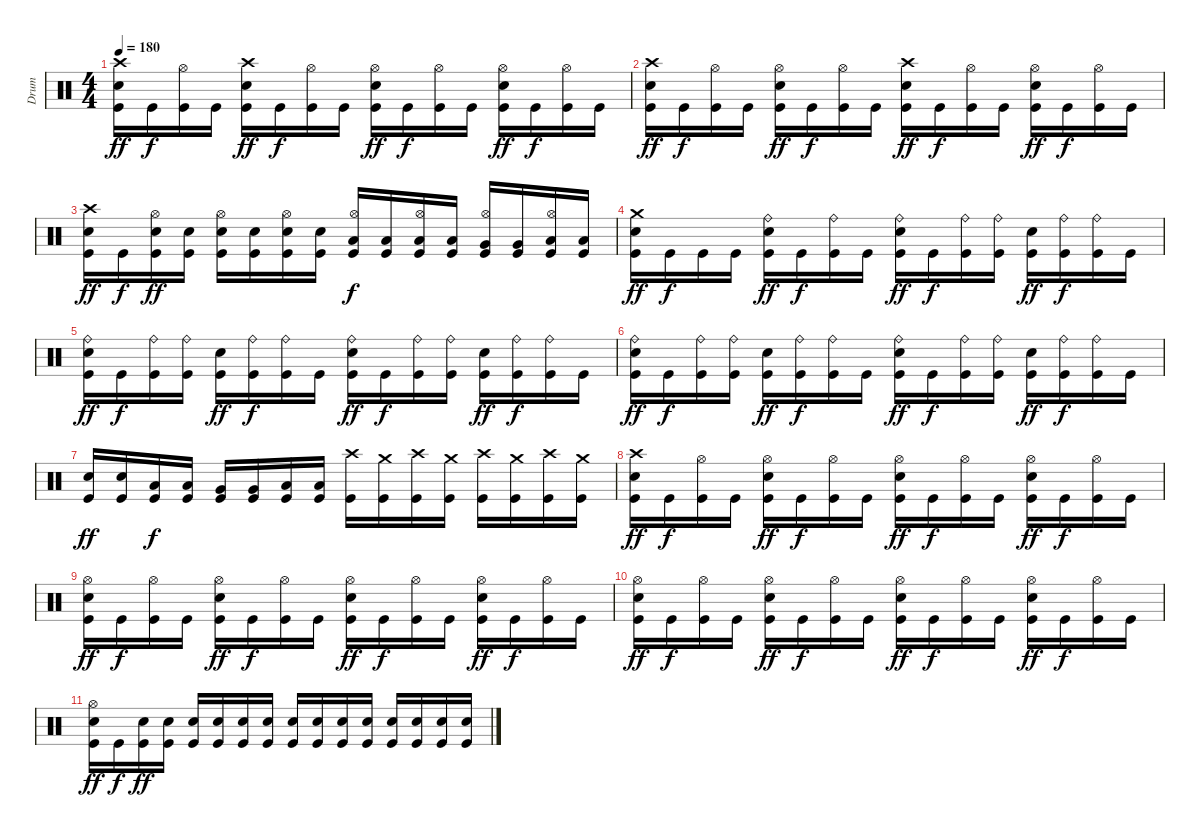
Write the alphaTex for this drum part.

\track ("Drum" "Drum") {instrument percussion}
\staff {score}
\articulation defaults
\ts (4 4)
\tempo 180
\clef neutral
\ks c
("Kick (hit)" "Electric Snare (hit)" "Crash high (hit)").16{dy ff} "Kick (hit)".16{dy f} ("Kick (hit)" "Hi-Hat (open)").16 "Kick (hit)".16 ("Kick (hit)" "Electric Snare (hit)" "Crash high (hit)").16{dy ff} "Kick (hit)".16{dy f} ("Kick (hit)" "Hi-Hat (open)").16 "Kick (hit)".16 ("Kick (hit)" "Electric Snare (hit)" "Hi-Hat (open)").16{dy ff} "Kick (hit)".16{dy f} ("Kick (hit)" "Hi-Hat (open)").16 "Kick (hit)".16 ("Kick (hit)" "Electric Snare (hit)" "Hi-Hat (open)").16{dy ff} "Kick (hit)".16{dy f} ("Kick (hit)" "Hi-Hat (open)").16 "Kick (hit)".16 |
("Kick (hit)" "Electric Snare (hit)" "Crash high (hit)").16{dy ff} "Kick (hit)".16{dy f} ("Kick (hit)" "Hi-Hat (open)").16 "Kick (hit)".16 ("Kick (hit)" "Electric Snare (hit)" "Hi-Hat (open)").16{dy ff} "Kick (hit)".16{dy f} ("Kick (hit)" "Hi-Hat (open)").16 "Kick (hit)".16 ("Kick (hit)" "Electric Snare (hit)" "Crash high (hit)").16{dy ff} "Kick (hit)".16{dy f} ("Kick (hit)" "Hi-Hat (open)").16 "Kick (hit)".16 ("Kick (hit)" "Electric Snare (hit)" "Hi-Hat (open)").16{dy ff} "Kick (hit)".16{dy f} ("Kick (hit)" "Hi-Hat (open)").16 "Kick (hit)".16 |
("Kick (hit)" "Electric Snare (hit)" "Crash high (hit)").16{dy ff} "Kick (hit)".16{dy f} ("Kick (hit)" "Electric Snare (hit)" "Hi-Hat (open)").16{dy ff} ("Kick (hit)" "Electric Snare (hit)").16 ("Kick (hit)" "Electric Snare (hit)" "Hi-Hat (open)").16 ("Kick (hit)" "Electric Snare (hit)").16 ("Kick (hit)" "Electric Snare (hit)" "Hi-Hat (open)").16 ("Kick (hit)" "Electric Snare (hit)").16 ("Kick (hit)" "Low Tom (hit)" "Hi-Hat (open)").16{dy f} ("Kick (hit)" "Low Tom (hit)").16 ("Kick (hit)" "Low Tom (hit)" "Hi-Hat (open)").16 ("Kick (hit)" "Low Tom (hit)").16 ("Kick (hit)" "Very Low Tom (hit)" "Hi-Hat (open)").16 ("Kick (hit)" "Very Low Tom (hit)").16 ("Kick (hit)" "Low Floor Tom (hit)" "Hi-Hat (open)").16 ("Kick (hit)" "Low Floor Tom (hit)").16 |
("Kick (hit)" "Electric Snare (hit)" "Crash medium (hit)").16{dy ff} "Kick (hit)".16{dy f} "Kick (hit)".16 "Kick (hit)".16 ("Kick (hit)" "Electric Snare (hit)" "Ride (bell)").16{dy ff} "Kick (hit)".16{dy f} ("Kick (hit)" "Ride (bell)").16 "Kick (hit)".16 ("Kick (hit)" "Electric Snare (hit)" "Ride (bell)").16{dy ff} "Kick (hit)".16{dy f} ("Kick (hit)" "Ride (bell)").16 ("Kick (hit)" "Ride (bell)").16 ("Kick (hit)" "Electric Snare (hit)").16{dy ff} ("Kick (hit)" "Ride (bell)").16{dy f} ("Kick (hit)" "Ride (bell)").16 "Kick (hit)".16 |
("Kick (hit)" "Electric Snare (hit)" "Ride (bell)").16{dy ff} "Kick (hit)".16{dy f} ("Kick (hit)" "Ride (bell)").16 ("Kick (hit)" "Ride (bell)").16 ("Kick (hit)" "Electric Snare (hit)").16{dy ff} ("Kick (hit)" "Ride (bell)").16{dy f} ("Kick (hit)" "Ride (bell)").16 "Kick (hit)".16 ("Kick (hit)" "Electric Snare (hit)" "Ride (bell)").16{dy ff} "Kick (hit)".16{dy f} ("Kick (hit)" "Ride (bell)").16 ("Kick (hit)" "Ride (bell)").16 ("Kick (hit)" "Electric Snare (hit)").16{dy ff} ("Kick (hit)" "Ride (bell)").16{dy f} ("Kick (hit)" "Ride (bell)").16 "Kick (hit)".16 |
("Kick (hit)" "Electric Snare (hit)" "Ride (bell)").16{dy ff} "Kick (hit)".16{dy f} ("Kick (hit)" "Ride (bell)").16 ("Kick (hit)" "Ride (bell)").16 ("Kick (hit)" "Electric Snare (hit)").16{dy ff} ("Kick (hit)" "Ride (bell)").16{dy f} ("Kick (hit)" "Ride (bell)").16 "Kick (hit)".16 ("Kick (hit)" "Electric Snare (hit)" "Ride (bell)").16{dy ff} "Kick (hit)".16{dy f} ("Kick (hit)" "Ride (bell)").16 ("Kick (hit)" "Ride (bell)").16 ("Kick (hit)" "Electric Snare (hit)").16{dy ff} ("Kick (hit)" "Ride (bell)").16{dy f} ("Kick (hit)" "Ride (bell)").16 "Kick (hit)".16 |
("Kick (hit)" "Electric Snare (hit)").16{dy ff} ("Kick (hit)" "Electric Snare (hit)").16 ("Kick (hit)" "Low Tom (hit)").16{dy f} ("Kick (hit)" "Low Tom (hit)").16 ("Kick (hit)" "Very Low Tom (hit)").16 ("Kick (hit)" "Very Low Tom (hit)").16 ("Kick (hit)" "Low Floor Tom (hit)").16 ("Kick (hit)" "Low Floor Tom (hit)").16 ("Kick (hit)" "Crash high (hit)").16 ("Kick (hit)" "Crash medium (hit)").16 ("Kick (hit)" "Crash high (hit)").16 ("Kick (hit)" "Crash medium (hit)").16 ("Kick (hit)" "Crash high (hit)").16 ("Kick (hit)" "Crash medium (hit)").16 ("Kick (hit)" "Crash high (hit)").16 ("Kick (hit)" "Crash medium (hit)").16 |
("Kick (hit)" "Electric Snare (hit)" "Crash high (hit)").16{dy ff} "Kick (hit)".16{dy f} ("Kick (hit)" "Hi-Hat (open)").16 "Kick (hit)".16 ("Kick (hit)" "Electric Snare (hit)" "Hi-Hat (open)").16{dy ff} "Kick (hit)".16{dy f} ("Kick (hit)" "Hi-Hat (open)").16 "Kick (hit)".16 ("Kick (hit)" "Electric Snare (hit)" "Hi-Hat (open)").16{dy ff} "Kick (hit)".16{dy f} ("Kick (hit)" "Hi-Hat (open)").16 "Kick (hit)".16 ("Kick (hit)" "Electric Snare (hit)" "Hi-Hat (open)").16{dy ff} "Kick (hit)".16{dy f} ("Kick (hit)" "Hi-Hat (open)").16 "Kick (hit)".16 |
("Kick (hit)" "Electric Snare (hit)" "Hi-Hat (open)").16{dy ff} "Kick (hit)".16{dy f} ("Kick (hit)" "Hi-Hat (open)").16 "Kick (hit)".16 ("Kick (hit)" "Electric Snare (hit)" "Hi-Hat (open)").16{dy ff} "Kick (hit)".16{dy f} ("Kick (hit)" "Hi-Hat (open)").16 "Kick (hit)".16 ("Kick (hit)" "Electric Snare (hit)" "Hi-Hat (open)").16{dy ff} "Kick (hit)".16{dy f} ("Kick (hit)" "Hi-Hat (open)").16 "Kick (hit)".16 ("Kick (hit)" "Electric Snare (hit)" "Hi-Hat (open)").16{dy ff} "Kick (hit)".16{dy f} ("Kick (hit)" "Hi-Hat (open)").16 "Kick (hit)".16 |
("Kick (hit)" "Electric Snare (hit)" "Hi-Hat (open)").16{dy ff} "Kick (hit)".16{dy f} ("Kick (hit)" "Hi-Hat (open)").16 "Kick (hit)".16 ("Kick (hit)" "Electric Snare (hit)" "Hi-Hat (open)").16{dy ff} "Kick (hit)".16{dy f} ("Kick (hit)" "Hi-Hat (open)").16 "Kick (hit)".16 ("Kick (hit)" "Electric Snare (hit)" "Hi-Hat (open)").16{dy ff} "Kick (hit)".16{dy f} ("Kick (hit)" "Hi-Hat (open)").16 "Kick (hit)".16 ("Kick (hit)" "Electric Snare (hit)" "Hi-Hat (open)").16{dy ff} "Kick (hit)".16{dy f} ("Kick (hit)" "Hi-Hat (open)").16 "Kick (hit)".16 |
("Kick (hit)" "Electric Snare (hit)" "Hi-Hat (open)").16{dy ff} "Kick (hit)".16{dy f} ("Kick (hit)" "Electric Snare (hit)").16{dy ff} ("Kick (hit)" "Electric Snare (hit)").16 ("Kick (hit)" "Electric Snare (hit)").16 ("Kick (hit)" "Electric Snare (hit)").16 ("Kick (hit)" "Electric Snare (hit)").16 ("Kick (hit)" "Electric Snare (hit)").16 ("Kick (hit)" "Electric Snare (hit)").16 ("Kick (hit)" "Electric Snare (hit)").16 ("Kick (hit)" "Electric Snare (hit)").16 ("Kick (hit)" "Electric Snare (hit)").16 ("Kick (hit)" "Electric Snare (hit)").16 ("Kick (hit)" "Electric Snare (hit)").16 ("Kick (hit)" "Electric Snare (hit)").16 ("Kick (hit)" "Electric Snare (hit)").16
